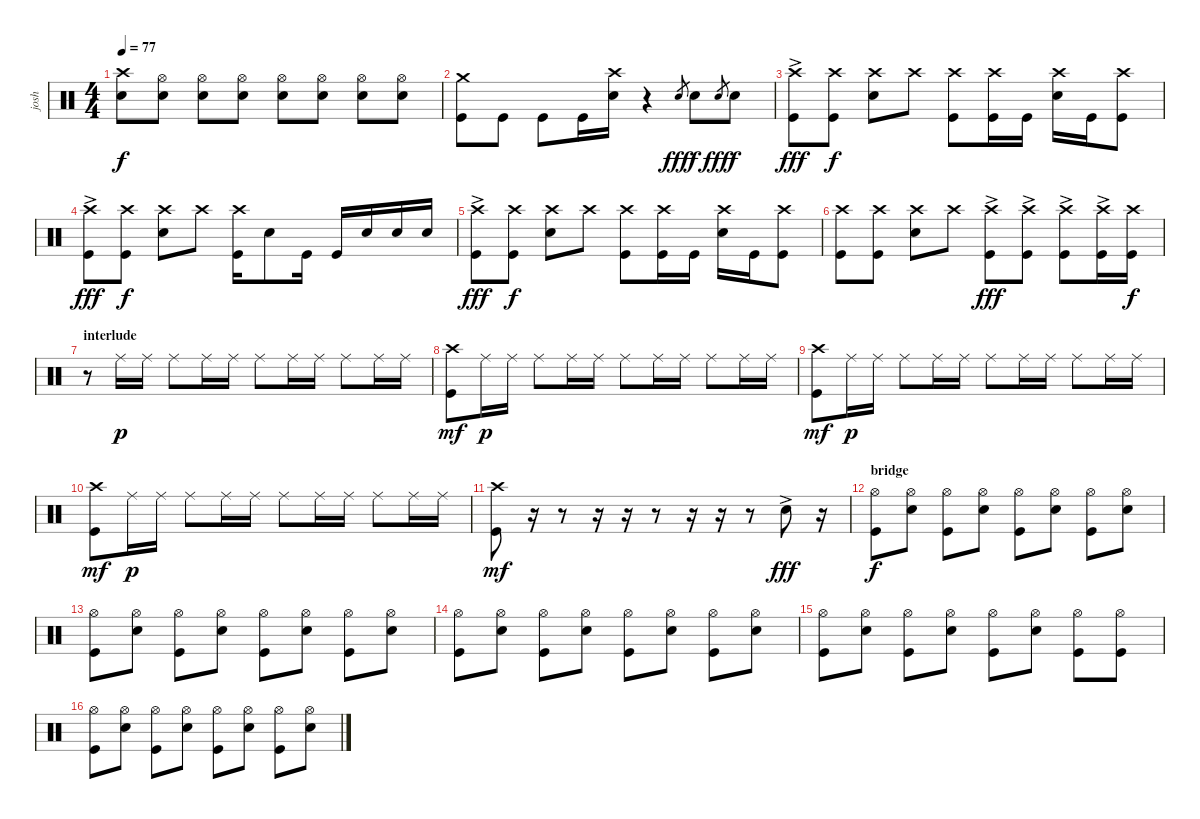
\track ("josh" "josh") {instrument percussion}
\staff {score}
\articulation defaults
\ts (4 4)
\tempo 77
\clef neutral
\ks c
("Crash high (hit)" "Snare (hit) 2").8{dy f} ("Hi-Hat (open)" "Snare (hit) 2").8 ("Hi-Hat (open)" "Snare (hit) 2").8 ("Hi-Hat (open)" "Snare (hit) 2").8 ("Hi-Hat (open)" "Snare (hit) 2").8 ("Hi-Hat (open)" "Snare (hit) 2").8 ("Hi-Hat (open)" "Snare (hit) 2").8 ("Hi-Hat (open)" "Snare (hit) 2").8 |
("Crash medium (hit)" "Kick (hit)").8 "Kick (hit)".8 "Kick (hit)".8 "Kick (hit)".16 ("Crash high (hit)" "Snare (hit) 2").16 r.4 "Snare (hit) 2".8{gr dy fff} "Snare (hit) 2".8{dy f} "Snare (hit) 2".8{gr dy fff} "Snare (hit) 2".8{dy f} |
("Crash high (hit)"{ac} "Kick (hit)").8{dy fff} ("Crash high (hit)" "Kick (hit)").8{dy f} ("Crash high (hit)" "Snare (hit) 2").8 "Crash high (hit)".8 ("Crash high (hit)" "Kick (hit)").8 ("Crash high (hit)" "Kick (hit)").16 "Kick (hit)".16 ("Crash high (hit)" "Snare (hit) 2").16 "Kick (hit)".16 ("Crash high (hit)" "Kick (hit)").8 |
("Crash high (hit)"{ac} "Kick (hit)").8{dy fff} ("Crash high (hit)" "Kick (hit)").8{dy f} ("Crash high (hit)" "Snare (hit) 2").8 "Crash high (hit)".8 ("Crash high (hit)" "Kick (hit)").16 "Snare (hit) 2".8 "Kick (hit)".16 "Kick (hit)".16 "Snare (hit) 2".16 "Snare (hit) 2".16 "Snare (hit) 2".16 |
("Crash high (hit)"{ac} "Kick (hit)").8{dy fff} ("Crash high (hit)" "Kick (hit)").8{dy f} ("Crash high (hit)" "Snare (hit) 2").8 "Crash high (hit)".8 ("Crash high (hit)" "Kick (hit)").8 ("Crash high (hit)" "Kick (hit)").16 "Kick (hit)".16 ("Crash high (hit)" "Snare (hit) 2").16 "Kick (hit)".16 ("Crash high (hit)" "Kick (hit)").8 |
("Crash high (hit)" "Kick (hit)").8 ("Crash high (hit)" "Kick (hit)").8 ("Crash high (hit)" "Snare (hit) 2").8 "Crash high (hit)".8 ("Crash high (hit)"{ac} "Kick (hit)").8{dy fff} ("Crash high (hit)"{ac} "Kick (hit)").8 ("Crash high (hit)"{ac} "Kick (hit)").8 ("Crash high (hit)"{ac} "Kick (hit)").16 ("Crash high (hit)" "Kick (hit)").16{dy f} |
\section ("" "interlude")
r.8 "Ride (middle)".16{dy p} "Ride (middle)".16 "Ride (middle)".8 "Ride (middle)".16 "Ride (middle)".16 "Ride (middle)".8 "Ride (middle)".16 "Ride (middle)".16 "Ride (middle)".8 "Ride (middle)".16 "Ride (middle)".16 |
("Crash high (hit)" "Kick (hit)").8{dy mf} "Ride (middle)".16{dy p} "Ride (middle)".16 "Ride (middle)".8 "Ride (middle)".16 "Ride (middle)".16 "Ride (middle)".8 "Ride (middle)".16 "Ride (middle)".16 "Ride (middle)".8 "Ride (middle)".16 "Ride (middle)".16 |
("Crash high (hit)" "Kick (hit)").8{dy mf} "Ride (middle)".16{dy p} "Ride (middle)".16 "Ride (middle)".8 "Ride (middle)".16 "Ride (middle)".16 "Ride (middle)".8 "Ride (middle)".16 "Ride (middle)".16 "Ride (middle)".8 "Ride (middle)".16 "Ride (middle)".16 |
("Crash high (hit)" "Kick (hit)").8{dy mf} "Ride (middle)".16{dy p} "Ride (middle)".16 "Ride (middle)".8 "Ride (middle)".16 "Ride (middle)".16 "Ride (middle)".8 "Ride (middle)".16 "Ride (middle)".16 "Ride (middle)".8 "Ride (middle)".16 "Ride (middle)".16 |
("Crash high (hit)" "Kick (hit)").8{dy mf} r.16 r.8 r.16 r.16 r.8 r.16 r.16 r.8 "Snare (hit) 2"{ac}.8{dy fff} r.16 |
\section ("" "bridge")
("Hi-Hat (open)" "Kick (hit)").8{dy f} ("Hi-Hat (open)" "Snare (hit) 2").8 ("Hi-Hat (open)" "Kick (hit)").8 ("Hi-Hat (open)" "Snare (hit) 2").8 ("Hi-Hat (open)" "Kick (hit)").8 ("Hi-Hat (open)" "Snare (hit) 2").8 ("Hi-Hat (open)" "Kick (hit)").8 ("Hi-Hat (open)" "Snare (hit) 2").8 |
("Hi-Hat (open)" "Kick (hit)").8 ("Hi-Hat (open)" "Snare (hit) 2").8 ("Hi-Hat (open)" "Kick (hit)").8 ("Hi-Hat (open)" "Snare (hit) 2").8 ("Hi-Hat (open)" "Kick (hit)").8 ("Hi-Hat (open)" "Snare (hit) 2").8 ("Hi-Hat (open)" "Kick (hit)").8 ("Hi-Hat (open)" "Snare (hit) 2").8 |
("Hi-Hat (open)" "Kick (hit)").8 ("Hi-Hat (open)" "Snare (hit) 2").8 ("Hi-Hat (open)" "Kick (hit)").8 ("Hi-Hat (open)" "Snare (hit) 2").8 ("Hi-Hat (open)" "Kick (hit)").8 ("Hi-Hat (open)" "Snare (hit) 2").8 ("Hi-Hat (open)" "Kick (hit)").8 ("Hi-Hat (open)" "Snare (hit) 2").8 |
("Hi-Hat (open)" "Kick (hit)").8 ("Hi-Hat (open)" "Snare (hit) 2").8 ("Hi-Hat (open)" "Kick (hit)").8 ("Hi-Hat (open)" "Snare (hit) 2").8 ("Hi-Hat (open)" "Kick (hit)").8 ("Hi-Hat (open)" "Snare (hit) 2").8 ("Hi-Hat (open)" "Kick (hit)").8 ("Hi-Hat (open)" "Kick (hit)").8 |
("Hi-Hat (open)" "Kick (hit)").8 ("Hi-Hat (open)" "Snare (hit) 2").8 ("Hi-Hat (open)" "Kick (hit)").8 ("Hi-Hat (open)" "Snare (hit) 2").8 ("Hi-Hat (open)" "Kick (hit)").8 ("Hi-Hat (open)" "Snare (hit) 2").8 ("Hi-Hat (open)" "Kick (hit)").8 ("Hi-Hat (open)" "Snare (hit) 2").8
